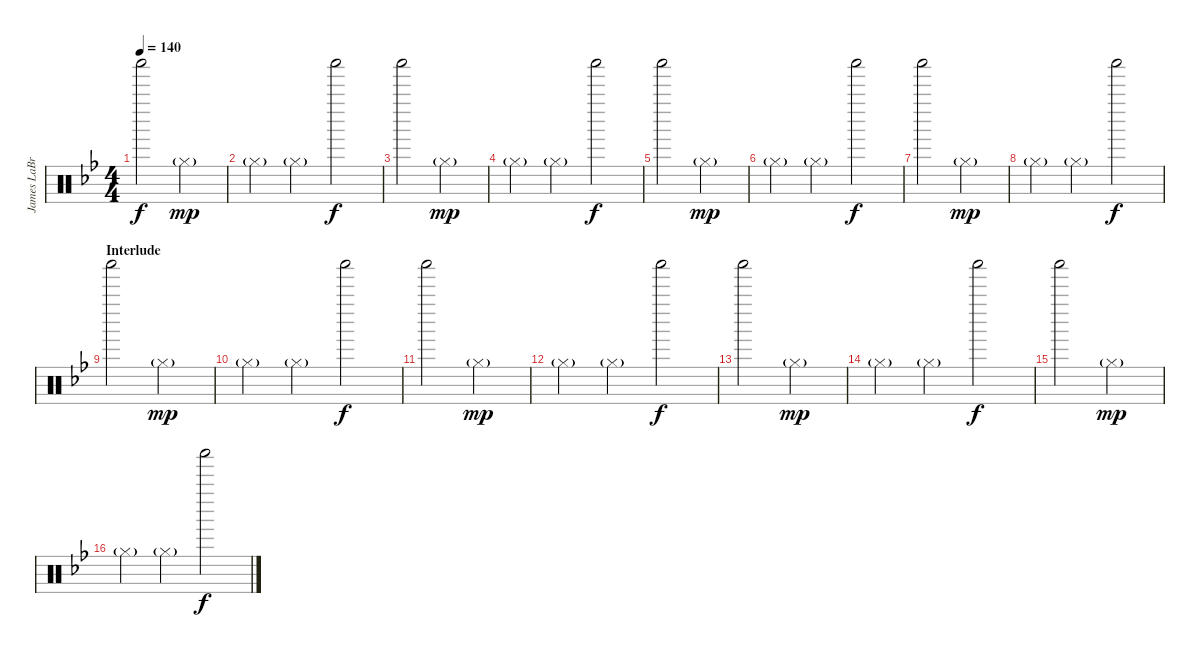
\track ("James LaBrie Percussion" "James LaBr") {instrument percussion}
\staff {score}
\articulation defaults
\ts (4 4)
\tempo 140
\clef neutral
\ks bb "Shaker (hit)".2{dy f} "Hi-Hat (closed)"{g}.2{dy mp}
|
"Hi-Hat (closed)"{g}.4 "Hi-Hat (closed)"{g}.4 "Shaker (hit)".2{dy f} |
"Shaker (hit)".2 "Hi-Hat (closed)"{g}.2{dy mp} |
"Hi-Hat (closed)"{g}.4 "Hi-Hat (closed)"{g}.4 "Shaker (hit)".2{dy f} |
"Shaker (hit)".2 "Hi-Hat (closed)"{g}.2{dy mp} |
"Hi-Hat (closed)"{g}.4 "Hi-Hat (closed)"{g}.4 "Shaker (hit)".2{dy f} |
"Shaker (hit)".2 "Hi-Hat (closed)"{g}.2{dy mp} |
"Hi-Hat (closed)"{g}.4 "Hi-Hat (closed)"{g}.4 "Shaker (hit)".2{dy f} |
\section ("" "Interlude")
"Shaker (hit)".2 "Hi-Hat (closed)"{g}.2{dy mp} |
"Hi-Hat (closed)"{g}.4 "Hi-Hat (closed)"{g}.4 "Shaker (hit)".2{dy f} |
"Shaker (hit)".2 "Hi-Hat (closed)"{g}.2{dy mp} |
"Hi-Hat (closed)"{g}.4 "Hi-Hat (closed)"{g}.4 "Shaker (hit)".2{dy f} |
\section ("" "")
"Shaker (hit)".2 "Hi-Hat (closed)"{g}.2{dy mp} |
"Hi-Hat (closed)"{g}.4 "Hi-Hat (closed)"{g}.4 "Shaker (hit)".2{dy f} |
"Shaker (hit)".2 "Hi-Hat (closed)"{g}.2{dy mp} |
"Hi-Hat (closed)"{g}.4 "Hi-Hat (closed)"{g}.4 "Shaker (hit)".2{dy f}
